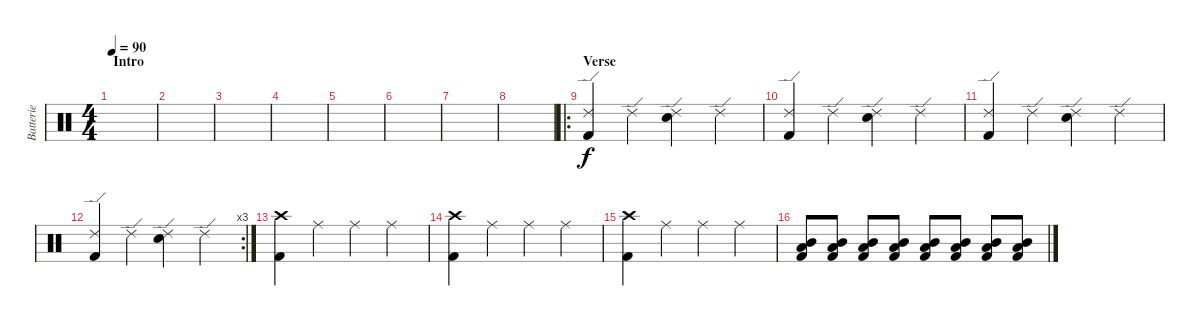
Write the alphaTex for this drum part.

\track ("Batterie" "Batterie") {instrument percussion}
\staff {score}
\articulation defaults
\ts (4 4)
\section ("" "Intro")
\tempo 90
\clef neutral
\ks c
|
|
|
|
|
|
|
|
\ro
\section ("" "Verse")
("Kick (hit) 2" "Ride (edge) 2").4 "Ride (edge) 2".4 ("Electric Snare (hit)" "Ride (edge) 2").4 "Ride (edge) 2".4 |
("Kick (hit) 2" "Ride (edge) 2").4 "Ride (edge) 2".4 ("Electric Snare (hit)" "Ride (edge) 2").4 "Ride (edge) 2".4 |
("Kick (hit) 2" "Ride (edge) 2").4 "Ride (edge) 2".4 ("Electric Snare (hit)" "Ride (edge) 2").4 "Ride (edge) 2".4 |
\rc 3
("Kick (hit) 2" "Ride (edge) 2").4 "Ride (edge) 2".4 ("Electric Snare (hit)" "Ride (edge) 2").4 "Ride (edge) 2".4 |
("Kick (hit) 2" "Crash high (hit)").4 "Ride (middle)".4 "Ride (middle)".4 "Ride (middle)".4 |
("Kick (hit) 2" "Crash high (hit)").4 "Ride (middle)".4 "Ride (middle)".4 "Ride (middle)".4 |
("Kick (hit) 2" "Crash high (hit)").4 "Ride (middle)".4 "Ride (middle)".4 "Ride (middle)".4 |
("Low Tom (hit)" "Mid Tom (hit)" "Kick (hit) 2").8 ("Low Tom (hit)" "Mid Tom (hit)" "Kick (hit) 2").8 ("Low Tom (hit)" "Mid Tom (hit)" "Kick (hit) 2").8 ("Low Tom (hit)" "Mid Tom (hit)" "Kick (hit) 2").8 ("Low Tom (hit)" "Mid Tom (hit)" "Kick (hit) 2").8 ("Low Tom (hit)" "Mid Tom (hit)" "Kick (hit) 2").8 ("Low Tom (hit)" "Mid Tom (hit)" "Kick (hit) 2").8 ("Low Tom (hit)" "Mid Tom (hit)" "Kick (hit) 2").8
